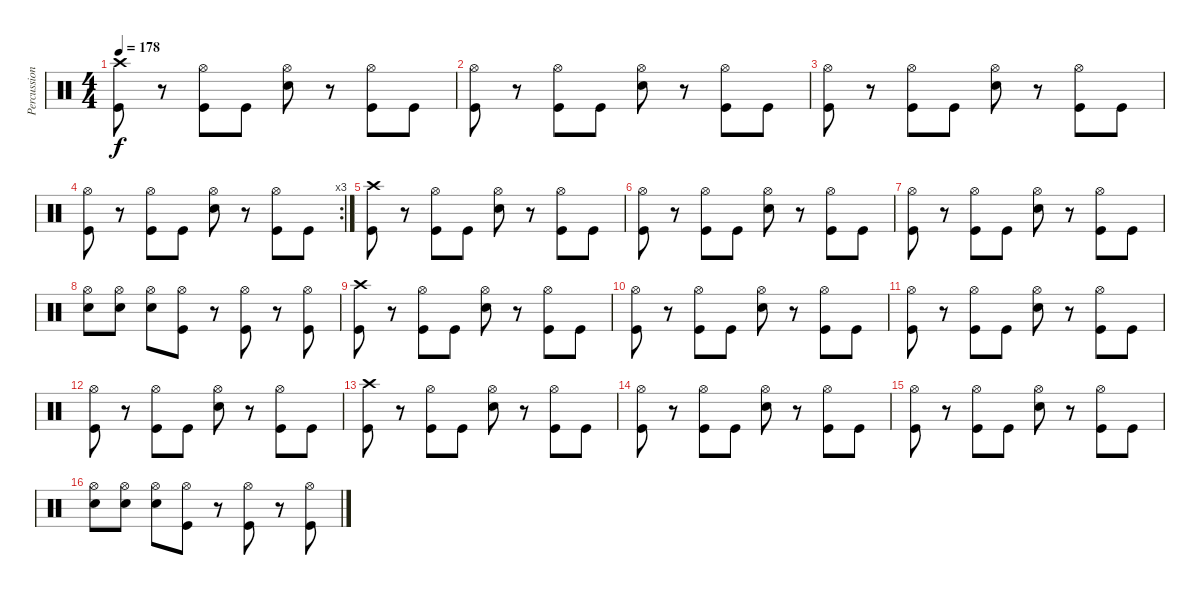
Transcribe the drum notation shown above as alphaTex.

\track ("Percussion" "Percussion") {instrument percussion}
\staff {score}
\articulation defaults
\ts (4 4)
\tempo 178
\clef neutral
\ks c
("Crash high (hit)" "Kick (hit)").8{dy f} r.8 ("Hi-Hat (open)" "Kick (hit)").8 "Kick (hit)".8 ("Hi-Hat (open)" "Snare (hit) 2").8 r.8 ("Hi-Hat (open)" "Kick (hit)").8 "Kick (hit)".8 |
("Hi-Hat (open)" "Kick (hit)").8 r.8 ("Hi-Hat (open)" "Kick (hit)").8 "Kick (hit)".8 ("Hi-Hat (open)" "Snare (hit) 2").8 r.8 ("Hi-Hat (open)" "Kick (hit)").8 "Kick (hit)".8 |
("Hi-Hat (open)" "Kick (hit)").8 r.8 ("Hi-Hat (open)" "Kick (hit)").8 "Kick (hit)".8 ("Hi-Hat (open)" "Snare (hit) 2").8 r.8 ("Hi-Hat (open)" "Kick (hit)").8 "Kick (hit)".8 |
\rc 3
("Hi-Hat (open)" "Kick (hit)").8 r.8 ("Hi-Hat (open)" "Kick (hit)").8 "Kick (hit)".8 ("Hi-Hat (open)" "Snare (hit) 2").8 r.8 ("Hi-Hat (open)" "Kick (hit)").8 "Kick (hit)".8 |
("Crash high (hit)" "Kick (hit)").8 r.8 ("Hi-Hat (open)" "Kick (hit)").8 "Kick (hit)".8 ("Hi-Hat (open)" "Snare (hit) 2").8 r.8 ("Hi-Hat (open)" "Kick (hit)").8 "Kick (hit)".8 |
("Hi-Hat (open)" "Kick (hit)").8 r.8 ("Hi-Hat (open)" "Kick (hit)").8 "Kick (hit)".8 ("Hi-Hat (open)" "Snare (hit) 2").8 r.8 ("Hi-Hat (open)" "Kick (hit)").8 "Kick (hit)".8 |
("Hi-Hat (open)" "Kick (hit)").8 r.8 ("Hi-Hat (open)" "Kick (hit)").8 "Kick (hit)".8 ("Hi-Hat (open)" "Snare (hit) 2").8 r.8 ("Hi-Hat (open)" "Kick (hit)").8 "Kick (hit)".8 |
("Hi-Hat (open)" "Snare (hit) 2").8 ("Hi-Hat (open)" "Snare (hit) 2").8 ("Hi-Hat (open)" "Snare (hit) 2").8 ("Hi-Hat (open)" "Kick (hit)").8 r.8 ("Hi-Hat (open)" "Kick (hit)").8 r.8 ("Hi-Hat (open)" "Kick (hit)").8 |
("Crash high (hit)" "Kick (hit)").8 r.8 ("Hi-Hat (open)" "Kick (hit)").8 "Kick (hit)".8 ("Hi-Hat (open)" "Snare (hit) 2").8 r.8 ("Hi-Hat (open)" "Kick (hit)").8 "Kick (hit)".8 |
("Hi-Hat (open)" "Kick (hit)").8 r.8 ("Hi-Hat (open)" "Kick (hit)").8 "Kick (hit)".8 ("Hi-Hat (open)" "Snare (hit) 2").8 r.8 ("Hi-Hat (open)" "Kick (hit)").8 "Kick (hit)".8 |
("Hi-Hat (open)" "Kick (hit)").8 r.8 ("Hi-Hat (open)" "Kick (hit)").8 "Kick (hit)".8 ("Hi-Hat (open)" "Snare (hit) 2").8 r.8 ("Hi-Hat (open)" "Kick (hit)").8 "Kick (hit)".8 |
("Hi-Hat (open)" "Kick (hit)").8 r.8 ("Hi-Hat (open)" "Kick (hit)").8 "Kick (hit)".8 ("Hi-Hat (open)" "Snare (hit) 2").8 r.8 ("Hi-Hat (open)" "Kick (hit)").8 "Kick (hit)".8 |
("Crash high (hit)" "Kick (hit)").8 r.8 ("Hi-Hat (open)" "Kick (hit)").8 "Kick (hit)".8 ("Hi-Hat (open)" "Snare (hit) 2").8 r.8 ("Hi-Hat (open)" "Kick (hit)").8 "Kick (hit)".8 |
("Hi-Hat (open)" "Kick (hit)").8 r.8 ("Hi-Hat (open)" "Kick (hit)").8 "Kick (hit)".8 ("Hi-Hat (open)" "Snare (hit) 2").8 r.8 ("Hi-Hat (open)" "Kick (hit)").8 "Kick (hit)".8 |
("Hi-Hat (open)" "Kick (hit)").8 r.8 ("Hi-Hat (open)" "Kick (hit)").8 "Kick (hit)".8 ("Hi-Hat (open)" "Snare (hit) 2").8 r.8 ("Hi-Hat (open)" "Kick (hit)").8 "Kick (hit)".8 |
("Hi-Hat (open)" "Snare (hit) 2").8 ("Hi-Hat (open)" "Snare (hit) 2").8 ("Hi-Hat (open)" "Snare (hit) 2").8 ("Hi-Hat (open)" "Kick (hit)").8 r.8 ("Hi-Hat (open)" "Kick (hit)").8 r.8 ("Hi-Hat (open)" "Kick (hit)").8
